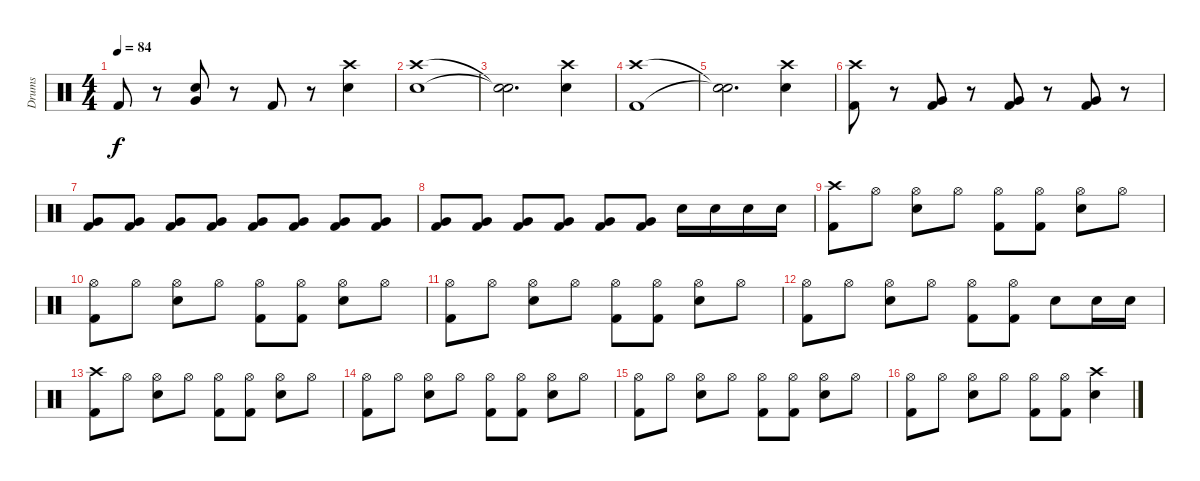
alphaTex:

\track ("Drums" "Drums") {instrument percussion}
\staff {score}
\articulation defaults
\ts (4 4)
\tempo 84
\clef neutral
\ks c "Kick (hit) 2".8{dy f}
r.8 ("Very Low Tom (hit)" "Snare (hit) 2").8 r.8 "Kick (hit) 2".8 r.8 ("Crash high (hit)" "Snare (hit) 2").4 |
("Crash high (hit)" "Snare (hit) 2").1 |
("Snare (hit)"{t} "Snare (hit)"{t}).2{d} ("Crash high (hit)" "Snare (hit) 2").4 |
("Crash high (hit)" "Kick (hit) 2").1 |
("Snare (hit)"{t} "Snare (hit)"{t}).2{d} ("Crash high (hit)" "Snare (hit) 2").4 |
("Crash high (hit)" "Kick (hit) 2").8 r.8 ("Very Low Tom (hit)" "Kick (hit) 2").8 r.8 ("Very Low Tom (hit)" "Kick (hit) 2").8 r.8 ("Very Low Tom (hit)" "Kick (hit) 2").8 r.8 |
("Very Low Tom (hit)" "Kick (hit) 2").8 ("Very Low Tom (hit)" "Kick (hit) 2").8 ("Very Low Tom (hit)" "Kick (hit) 2").8 ("Very Low Tom (hit)" "Kick (hit) 2").8 ("Very Low Tom (hit)" "Kick (hit) 2").8 ("Very Low Tom (hit)" "Kick (hit) 2").8 ("Very Low Tom (hit)" "Kick (hit) 2").8 ("Very Low Tom (hit)" "Kick (hit) 2").8 |
("Very Low Tom (hit)" "Kick (hit) 2").8 ("Very Low Tom (hit)" "Kick (hit) 2").8 ("Very Low Tom (hit)" "Kick (hit) 2").8 ("Very Low Tom (hit)" "Kick (hit) 2").8 ("Very Low Tom (hit)" "Kick (hit) 2").8 ("Very Low Tom (hit)" "Kick (hit) 2").8 "Snare (hit) 2".16 "Snare (hit) 2".16 "Snare (hit) 2".16 "Snare (hit) 2".16 |
("Crash high (hit)" "Kick (hit) 2").8 "Hi-Hat (open)".8 ("Hi-Hat (open)" "Snare (hit) 2").8 "Hi-Hat (open)".8 ("Hi-Hat (open)" "Kick (hit) 2").8 ("Hi-Hat (open)" "Kick (hit) 2").8 ("Hi-Hat (open)" "Snare (hit) 2").8 "Hi-Hat (open)".8 |
("Hi-Hat (open)" "Kick (hit) 2").8 "Hi-Hat (open)".8 ("Hi-Hat (open)" "Snare (hit) 2").8 "Hi-Hat (open)".8 ("Hi-Hat (open)" "Kick (hit) 2").8 ("Hi-Hat (open)" "Kick (hit) 2").8 ("Hi-Hat (open)" "Snare (hit) 2").8 "Hi-Hat (open)".8 |
("Hi-Hat (open)" "Kick (hit) 2").8 "Hi-Hat (open)".8 ("Hi-Hat (open)" "Snare (hit) 2").8 "Hi-Hat (open)".8 ("Hi-Hat (open)" "Kick (hit) 2").8 ("Hi-Hat (open)" "Kick (hit) 2").8 ("Hi-Hat (open)" "Snare (hit) 2").8 "Hi-Hat (open)".8 |
("Hi-Hat (open)" "Kick (hit) 2").8 "Hi-Hat (open)".8 ("Hi-Hat (open)" "Snare (hit) 2").8 "Hi-Hat (open)".8 ("Hi-Hat (open)" "Kick (hit) 2").8 ("Hi-Hat (open)" "Kick (hit) 2").8 "Snare (hit) 2".8 "Snare (hit) 2".16 "Snare (hit) 2".16 |
("Crash high (hit)" "Kick (hit) 2").8 "Hi-Hat (open)".8 ("Hi-Hat (open)" "Snare (hit) 2").8 "Hi-Hat (open)".8 ("Hi-Hat (open)" "Kick (hit) 2").8 ("Hi-Hat (open)" "Kick (hit) 2").8 ("Hi-Hat (open)" "Snare (hit) 2").8 "Hi-Hat (open)".8 |
("Hi-Hat (open)" "Kick (hit) 2").8 "Hi-Hat (open)".8 ("Hi-Hat (open)" "Snare (hit) 2").8 "Hi-Hat (open)".8 ("Hi-Hat (open)" "Kick (hit) 2").8 ("Hi-Hat (open)" "Kick (hit) 2").8 ("Hi-Hat (open)" "Snare (hit) 2").8 "Hi-Hat (open)".8 |
("Hi-Hat (open)" "Kick (hit) 2").8 "Hi-Hat (open)".8 ("Hi-Hat (open)" "Snare (hit) 2").8 "Hi-Hat (open)".8 ("Hi-Hat (open)" "Kick (hit) 2").8 ("Hi-Hat (open)" "Kick (hit) 2").8 ("Hi-Hat (open)" "Snare (hit) 2").8 "Hi-Hat (open)".8 |
("Hi-Hat (open)" "Kick (hit) 2").8 "Hi-Hat (open)".8 ("Hi-Hat (open)" "Snare (hit) 2").8 "Hi-Hat (open)".8 ("Hi-Hat (open)" "Kick (hit) 2").8 ("Hi-Hat (open)" "Kick (hit) 2").8 ("Crash high (hit)" "Snare (hit) 2").4
